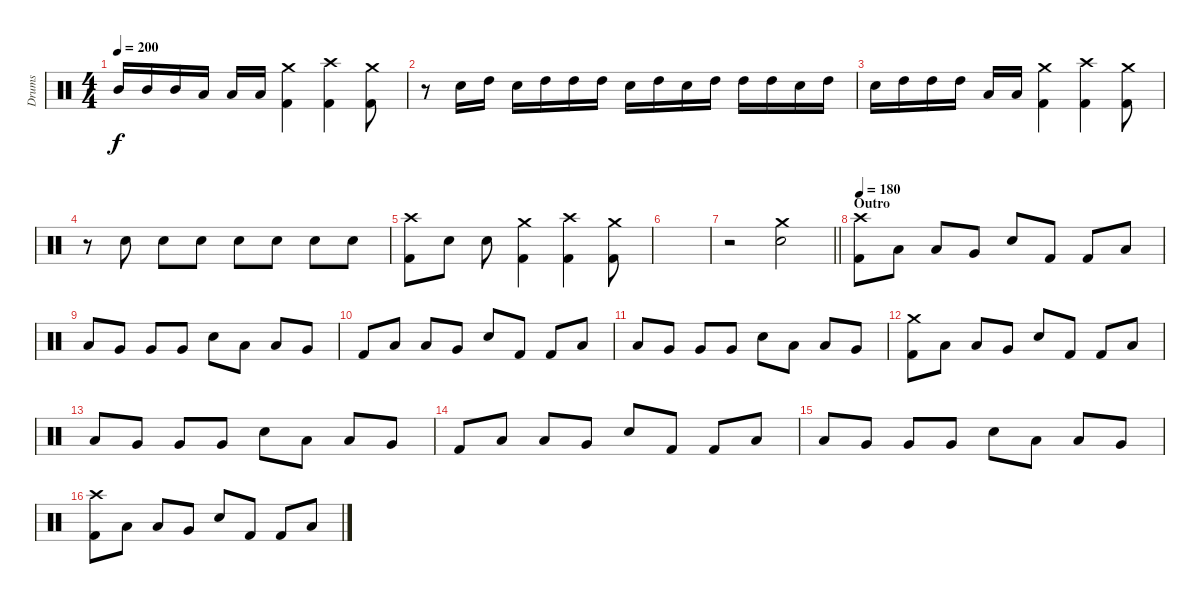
\track ("Drums" "Drums") {instrument percussion}
\staff {score}
\articulation defaults
\ts (4 4)
\tempo 200
\clef neutral
\ks c "Mid Tom (hit)".16{dy f} "Mid Tom (hit)".16 "Mid Tom (hit)".16 "Low Tom (hit)".16 "Low Tom (hit)".16 "Low Tom (hit)".16
("Crash medium (hit)" "Kick (hit) 2").4 ("Crash high (hit)" "Kick (hit) 2").4 ("Crash medium (hit)" "Kick (hit) 2").8 |
r.8 "Electric Snare (hit)".16 "High Tom (hit)".16 "Electric Snare (hit)".16 "High Tom (hit)".16 "High Tom (hit)".16 "High Tom (hit)".16 "Electric Snare (hit)".16 "High Tom (hit)".16 "Electric Snare (hit)".16 "High Tom (hit)".16 "High Tom (hit)".16 "High Tom (hit)".16 "Electric Snare (hit)".16 "High Tom (hit)".16 |
"Electric Snare (hit)".16 "High Tom (hit)".16 "High Tom (hit)".16 "High Tom (hit)".16 "Low Tom (hit)".16 "Low Tom (hit)".16 ("Crash medium (hit)" "Kick (hit) 2").4 ("Crash high (hit)" "Kick (hit) 2").4 ("Crash medium (hit)" "Kick (hit) 2").8 |
r.8 "Electric Snare (hit)".8 "Electric Snare (hit)".8 "Electric Snare (hit)".8 "Electric Snare (hit)".8 "Electric Snare (hit)".8 "Electric Snare (hit)".8 "Electric Snare (hit)".8 |
("Crash high (hit)" "Kick (hit) 2").8 "Electric Snare (hit)".8 "Electric Snare (hit)".8 ("Crash medium (hit)" "Kick (hit) 2").4 ("Crash high (hit)" "Kick (hit) 2").4 ("Crash medium (hit)" "Kick (hit) 2").8 |
|
\barLineRight lightlight
r.2 ("Crash medium (hit)" "Electric Snare (hit)").2 |
\section ("" "Outro")
\tempo 180
("Crash high (hit)" "Kick (hit) 2").8 "Low Tom (hit)".8 "Low Tom (hit)".8 "Very Low Tom (hit)".8 "Electric Snare (hit)".8 "Kick (hit) 2".8 "Kick (hit) 2".8 "Low Tom (hit)".8 |
"Low Tom (hit)".8 "Very Low Tom (hit)".8 "Very Low Tom (hit)".8 "Very Low Tom (hit)".8 "Electric Snare (hit)".8 "Low Tom (hit)".8 "Low Tom (hit)".8 "Very Low Tom (hit)".8 |
"Kick (hit) 2".8 "Low Tom (hit)".8 "Low Tom (hit)".8 "Very Low Tom (hit)".8 "Electric Snare (hit)".8 "Kick (hit) 2".8 "Kick (hit) 2".8 "Low Tom (hit)".8 |
"Low Tom (hit)".8 "Very Low Tom (hit)".8 "Very Low Tom (hit)".8 "Very Low Tom (hit)".8 "Electric Snare (hit)".8 "Low Tom (hit)".8 "Low Tom (hit)".8 "Very Low Tom (hit)".8 |
("Crash medium (hit)" "Kick (hit) 2").8 "Low Tom (hit)".8 "Low Tom (hit)".8 "Very Low Tom (hit)".8 "Electric Snare (hit)".8 "Kick (hit) 2".8 "Kick (hit) 2".8 "Low Tom (hit)".8 |
"Low Tom (hit)".8 "Very Low Tom (hit)".8 "Very Low Tom (hit)".8 "Very Low Tom (hit)".8 "Electric Snare (hit)".8 "Low Tom (hit)".8 "Low Tom (hit)".8 "Very Low Tom (hit)".8 |
"Kick (hit) 2".8 "Low Tom (hit)".8 "Low Tom (hit)".8 "Very Low Tom (hit)".8 "Electric Snare (hit)".8 "Kick (hit) 2".8 "Kick (hit) 2".8 "Low Tom (hit)".8 |
"Low Tom (hit)".8 "Very Low Tom (hit)".8 "Very Low Tom (hit)".8 "Very Low Tom (hit)".8 "Electric Snare (hit)".8 "Low Tom (hit)".8 "Low Tom (hit)".8 "Very Low Tom (hit)".8 |
("Crash high (hit)" "Kick (hit) 2").8 "Low Tom (hit)".8 "Low Tom (hit)".8 "Very Low Tom (hit)".8 "Electric Snare (hit)".8 "Kick (hit) 2".8 "Kick (hit) 2".8 "Low Tom (hit)".8
